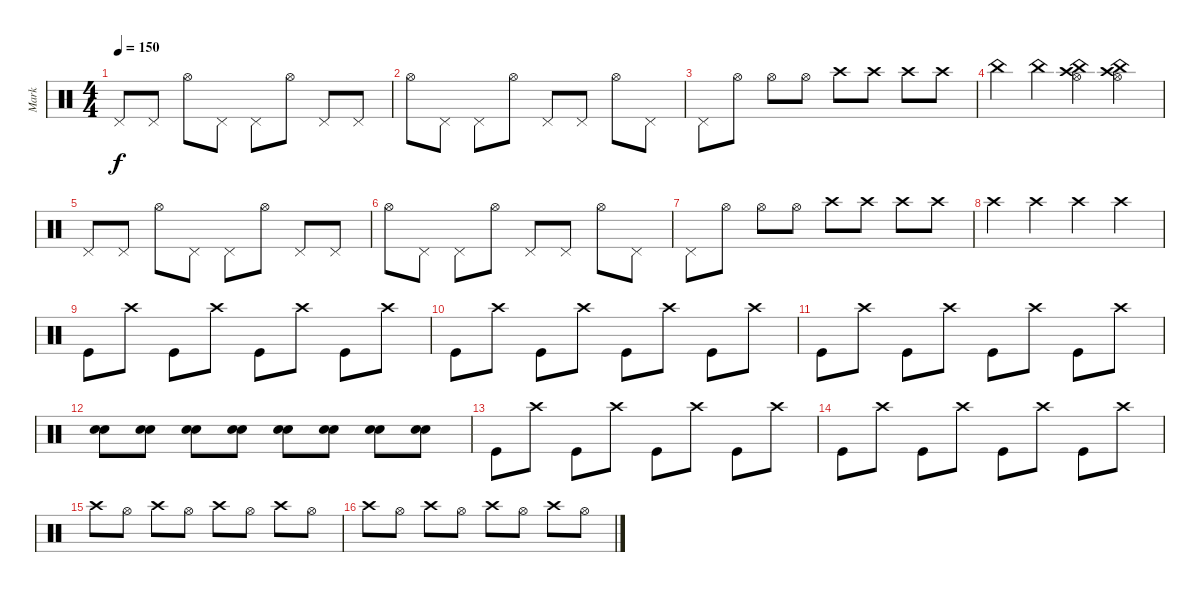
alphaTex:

\track ("Mark" "Mark") {instrument percussion}
\staff {score}
\articulation defaults
\ts (4 4)
\tempo 150
\clef neutral
\ks c "Pedal Hi-Hat (hit)".8{dy f} "Pedal Hi-Hat (hit)".8 "Hi-Hat (open)".8 "Pedal Hi-Hat (hit)".8 "Pedal Hi-Hat (hit)".8 "Hi-Hat (open)".8 "Pedal Hi-Hat (hit)".8 "Pedal Hi-Hat (hit)".8
|
"Hi-Hat (open)".8 "Pedal Hi-Hat (hit)".8 "Pedal Hi-Hat (hit)".8 "Hi-Hat (open)".8 "Pedal Hi-Hat (hit)".8 "Pedal Hi-Hat (hit)".8 "Hi-Hat (open)".8 "Pedal Hi-Hat (hit)".8 |
"Pedal Hi-Hat (hit)".8 "Hi-Hat (open)".8 "Hi-Hat (open)".8 "Hi-Hat (open)".8 "Crash high (hit)".8 "Crash high (hit)".8 "Crash high (hit)".8 "Crash high (hit)".8 |
"China (hit)".4 "China (hit)".4 ("Hi-Hat (open)" "Crash high (hit)" "China (hit)").4 ("Hi-Hat (open)" "Crash high (hit)" "China (hit)").4 |
"Pedal Hi-Hat (hit)".8 "Pedal Hi-Hat (hit)".8 "Hi-Hat (open)".8 "Pedal Hi-Hat (hit)".8 "Pedal Hi-Hat (hit)".8 "Hi-Hat (open)".8 "Pedal Hi-Hat (hit)".8 "Pedal Hi-Hat (hit)".8 |
"Hi-Hat (open)".8 "Pedal Hi-Hat (hit)".8 "Pedal Hi-Hat (hit)".8 "Hi-Hat (open)".8 "Pedal Hi-Hat (hit)".8 "Pedal Hi-Hat (hit)".8 "Hi-Hat (open)".8 "Pedal Hi-Hat (hit)".8 |
"Pedal Hi-Hat (hit)".8 "Hi-Hat (open)".8 "Hi-Hat (open)".8 "Hi-Hat (open)".8 "Crash high (hit)".8 "Crash high (hit)".8 "Crash high (hit)".8 "Crash high (hit)".8 |
"Crash high (hit)".4 "Crash high (hit)".4 "Crash high (hit)".4 "Crash high (hit)".4 |
"Kick (hit)".8 "Crash high (hit)".8 "Kick (hit)".8 "Crash high (hit)".8 "Kick (hit)".8 "Crash high (hit)".8 "Kick (hit)".8 "Crash high (hit)".8 |
"Kick (hit)".8 "Crash high (hit)".8 "Kick (hit)".8 "Crash high (hit)".8 "Kick (hit)".8 "Crash high (hit)".8 "Kick (hit)".8 "Crash high (hit)".8 |
"Kick (hit)".8 "Crash high (hit)".8 "Kick (hit)".8 "Crash high (hit)".8 "Kick (hit)".8 "Crash high (hit)".8 "Kick (hit)".8 "Crash high (hit)".8 |
("Electric Snare (hit)" "Snare (hit) 2").8 ("Electric Snare (hit)" "Snare (hit) 2").8 ("Electric Snare (hit)" "Snare (hit) 2").8 ("Electric Snare (hit)" "Snare (hit) 2").8 ("Electric Snare (hit)" "Snare (hit) 2").8 ("Electric Snare (hit)" "Snare (hit) 2").8 ("Electric Snare (hit)" "Snare (hit) 2").8 ("Electric Snare (hit)" "Snare (hit) 2").8 |
"Kick (hit)".8 "Crash high (hit)".8 "Kick (hit)".8 "Crash high (hit)".8 "Kick (hit)".8 "Crash high (hit)".8 "Kick (hit)".8 "Crash high (hit)".8 |
"Kick (hit)".8 "Crash high (hit)".8 "Kick (hit)".8 "Crash high (hit)".8 "Kick (hit)".8 "Crash high (hit)".8 "Kick (hit)".8 "Crash high (hit)".8 |
"Crash high (hit)".8 "Hi-Hat (open)".8 "Crash high (hit)".8 "Hi-Hat (open)".8 "Crash high (hit)".8 "Hi-Hat (open)".8 "Crash high (hit)".8 "Hi-Hat (open)".8 |
"Crash high (hit)".8 "Hi-Hat (open)".8 "Crash high (hit)".8 "Hi-Hat (open)".8 "Crash high (hit)".8 "Hi-Hat (open)".8 "Crash high (hit)".8 "Hi-Hat (open)".8
